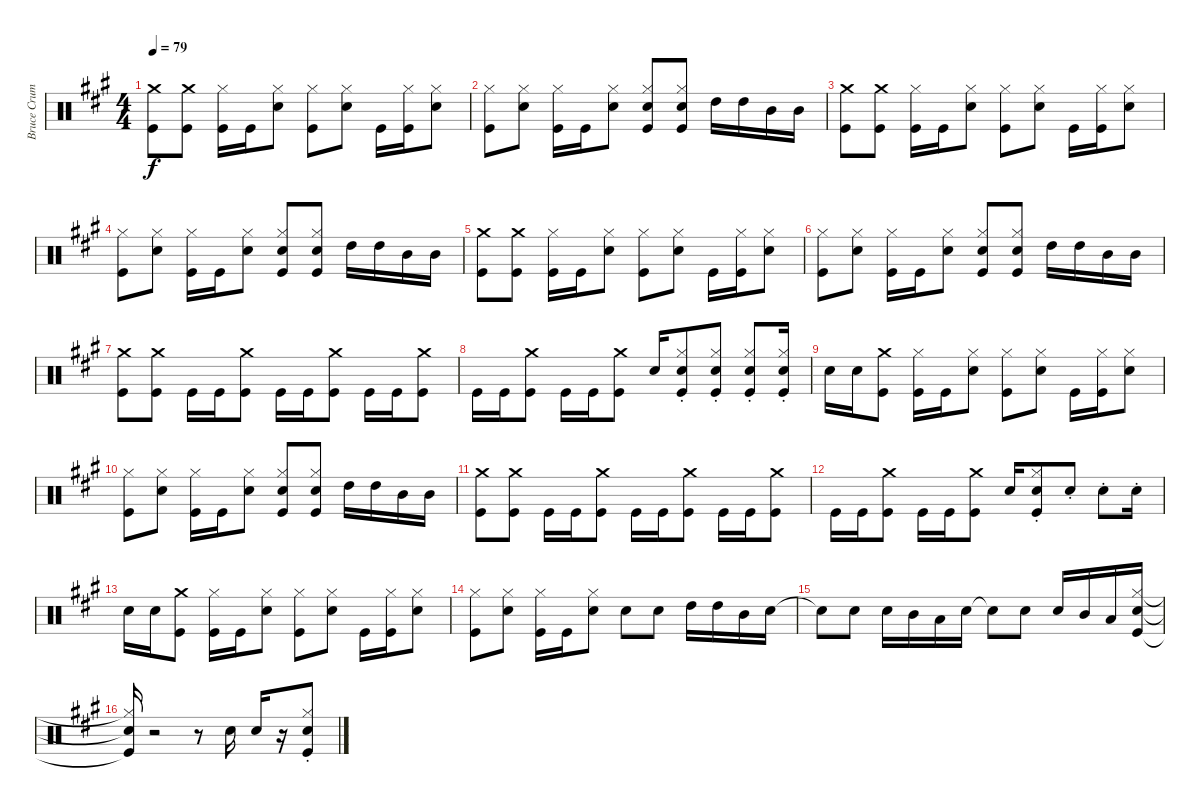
\track ("Bruce Crump Drums" "Bruce Crum") {instrument percussion}
\staff {score}
\articulation defaults
\ts (4 4)
\tempo 79
\clef neutral
\ks a
("Crash medium (hit)" "Kick (hit)").8{dy f} ("Crash medium (hit)" "Kick (hit)").8 ("Hi-Hat (closed)" "Kick (hit)").16 "Kick (hit)".16 ("Hi-Hat (closed)" "Snare (hit) 2").8 ("Hi-Hat (closed)" "Kick (hit)").8 ("Hi-Hat (closed)" "Snare (hit) 2").8 "Kick (hit)".16 ("Hi-Hat (closed)" "Kick (hit)").16 ("Hi-Hat (closed)" "Snare (hit) 2").8 |
("Hi-Hat (closed)" "Kick (hit)").8 ("Hi-Hat (closed)" "Snare (hit) 2").8 ("Hi-Hat (closed)" "Kick (hit)").16 "Kick (hit)".16 ("Hi-Hat (closed)" "Snare (hit) 2").8 ("Hi-Hat (closed)" "Snare (hit) 2" "Kick (hit)").8 ("Hi-Hat (closed)" "Snare (hit) 2" "Kick (hit)").8 "High Tom (hit)".16 "High Tom (hit)".16 "Mid Tom (hit)".16 "Mid Tom (hit)".16 |
("Crash medium (hit)" "Kick (hit)").8 ("Crash medium (hit)" "Kick (hit)").8 ("Hi-Hat (closed)" "Kick (hit)").16 "Kick (hit)".16 ("Hi-Hat (closed)" "Snare (hit) 2").8 ("Hi-Hat (closed)" "Kick (hit)").8 ("Hi-Hat (closed)" "Snare (hit) 2").8 "Kick (hit)".16 ("Hi-Hat (closed)" "Kick (hit)").16 ("Hi-Hat (closed)" "Snare (hit) 2").8 |
("Hi-Hat (closed)" "Kick (hit)").8 ("Hi-Hat (closed)" "Snare (hit) 2").8 ("Hi-Hat (closed)" "Kick (hit)").16 "Kick (hit)".16 ("Hi-Hat (closed)" "Snare (hit) 2").8 ("Hi-Hat (closed)" "Snare (hit) 2" "Kick (hit)").8 ("Hi-Hat (closed)" "Snare (hit) 2" "Kick (hit)").8 "High Tom (hit)".16 "High Tom (hit)".16 "Mid Tom (hit)".16 "Mid Tom (hit)".16 |
("Crash medium (hit)" "Kick (hit)").8 ("Crash medium (hit)" "Kick (hit)").8 ("Hi-Hat (closed)" "Kick (hit)").16 "Kick (hit)".16 ("Hi-Hat (closed)" "Snare (hit) 2").8 ("Hi-Hat (closed)" "Kick (hit)").8 ("Hi-Hat (closed)" "Snare (hit) 2").8 "Kick (hit)".16 ("Hi-Hat (closed)" "Kick (hit)").16 ("Hi-Hat (closed)" "Snare (hit) 2").8 |
("Hi-Hat (closed)" "Kick (hit)").8 ("Hi-Hat (closed)" "Snare (hit) 2").8 ("Hi-Hat (closed)" "Kick (hit)").16 "Kick (hit)".16 ("Hi-Hat (closed)" "Snare (hit) 2").8 ("Hi-Hat (closed)" "Snare (hit) 2" "Kick (hit)").8 ("Hi-Hat (closed)" "Snare (hit) 2" "Kick (hit)").8 "High Tom (hit)".16 "High Tom (hit)".16 "Mid Tom (hit)".16 "Mid Tom (hit)".16 |
("Crash medium (hit)" "Kick (hit)").8 ("Crash medium (hit)" "Kick (hit)").8 "Kick (hit)".16 "Kick (hit)".16 ("Crash medium (hit)" "Kick (hit)").8 "Kick (hit)".16 "Kick (hit)".16 ("Crash medium (hit)" "Kick (hit)").8 "Kick (hit)".16 "Kick (hit)".16 ("Crash medium (hit)" "Kick (hit)").8 |
"Kick (hit)".16 "Kick (hit)".16 ("Crash medium (hit)" "Kick (hit)").8 "Kick (hit)".16 "Kick (hit)".16 ("Crash medium (hit)" "Kick (hit)").8 "Snare (hit) 2".16 ("Hi-Hat (closed)"{st} "Snare (hit) 2"{st} "Kick (hit)"{st}).8 ("Hi-Hat (closed)"{st} "Snare (hit) 2"{st} "Kick (hit)"{st}).8 ("Hi-Hat (closed)"{st} "Snare (hit) 2"{st} "Kick (hit)"{st}).8 ("Hi-Hat (closed)"{st} "Snare (hit) 2"{st} "Kick (hit)"{st}).16 |
"Snare (hit) 2".16 "Snare (hit) 2".16 ("Crash medium (hit)" "Kick (hit)").8 ("Hi-Hat (closed)" "Kick (hit)").16 "Kick (hit)".16 ("Hi-Hat (closed)" "Snare (hit) 2").8 ("Hi-Hat (closed)" "Kick (hit)").8 ("Hi-Hat (closed)" "Snare (hit) 2").8 "Kick (hit)".16 ("Hi-Hat (closed)" "Kick (hit)").16 ("Hi-Hat (closed)" "Snare (hit) 2").8 |
("Hi-Hat (closed)" "Kick (hit)").8 ("Hi-Hat (closed)" "Snare (hit) 2").8 ("Hi-Hat (closed)" "Kick (hit)").16 "Kick (hit)".16 ("Hi-Hat (closed)" "Snare (hit) 2").8 ("Hi-Hat (closed)" "Snare (hit) 2" "Kick (hit)").8 ("Hi-Hat (closed)" "Snare (hit) 2" "Kick (hit)").8 "High Tom (hit)".16 "High Tom (hit)".16 "Mid Tom (hit)".16 "Mid Tom (hit)".16 |
("Crash medium (hit)" "Kick (hit)").8 ("Crash medium (hit)" "Kick (hit)").8 "Kick (hit)".16 "Kick (hit)".16 ("Crash medium (hit)" "Kick (hit)").8 "Kick (hit)".16 "Kick (hit)".16 ("Crash medium (hit)" "Kick (hit)").8 "Kick (hit)".16 "Kick (hit)".16 ("Crash medium (hit)" "Kick (hit)").8 |
"Kick (hit)".16 "Kick (hit)".16 ("Crash medium (hit)" "Kick (hit)").8 "Kick (hit)".16 "Kick (hit)".16 ("Crash medium (hit)" "Kick (hit)").8 "Snare (hit) 2".16 ("Hi-Hat (closed)"{st} "Snare (hit) 2"{st} "Kick (hit)"{st}).8 "Snare (hit) 2"{st}.8 "Snare (hit) 2"{st}.8 "Snare (hit) 2"{st}.16 |
"Snare (hit) 2".16 "Snare (hit) 2".16 ("Crash medium (hit)" "Kick (hit)").8 ("Hi-Hat (closed)" "Kick (hit)").16 "Kick (hit)".16 ("Hi-Hat (closed)" "Snare (hit) 2").8 ("Hi-Hat (closed)" "Kick (hit)").8 ("Hi-Hat (closed)" "Snare (hit) 2").8 "Kick (hit)".16 ("Hi-Hat (closed)" "Kick (hit)").16 ("Hi-Hat (closed)" "Snare (hit) 2").8 |
("Hi-Hat (closed)" "Kick (hit)").8 ("Hi-Hat (closed)" "Snare (hit) 2").8 ("Hi-Hat (closed)" "Kick (hit)").16 "Kick (hit)".16 ("Hi-Hat (closed)" "Snare (hit) 2").8 "Snare (hit) 2".8 "Snare (hit) 2".8 "High Tom (hit)".16 "High Tom (hit)".16 "Mid Tom (hit)".16 "Snare (hit) 2".16 |
"Snare (hit) 2"{t}.8 "Snare (hit) 2".8 "Snare (hit) 2".16 "Mid Tom (hit)".16 "Low Tom (hit)".16 "Snare (hit) 2".16 "Snare (hit) 2"{t}.8 "Snare (hit) 2".8 "Snare (hit) 2".16 "Mid Tom (hit)".16 "Low Tom (hit)".16 ("Hi-Hat (closed)" "Snare (hit) 2" "Kick (hit)").16 |
("Hi-Hat (closed)"{t} "Snare (hit) 2"{t} "Kick (hit)"{t}).16 r.2 r.8 "Snare (hit) 2".16 "Snare (hit) 2".16 r.16 ("Hi-Hat (closed)" "Snare (hit) 2" "Kick (hit)"{st}).8
